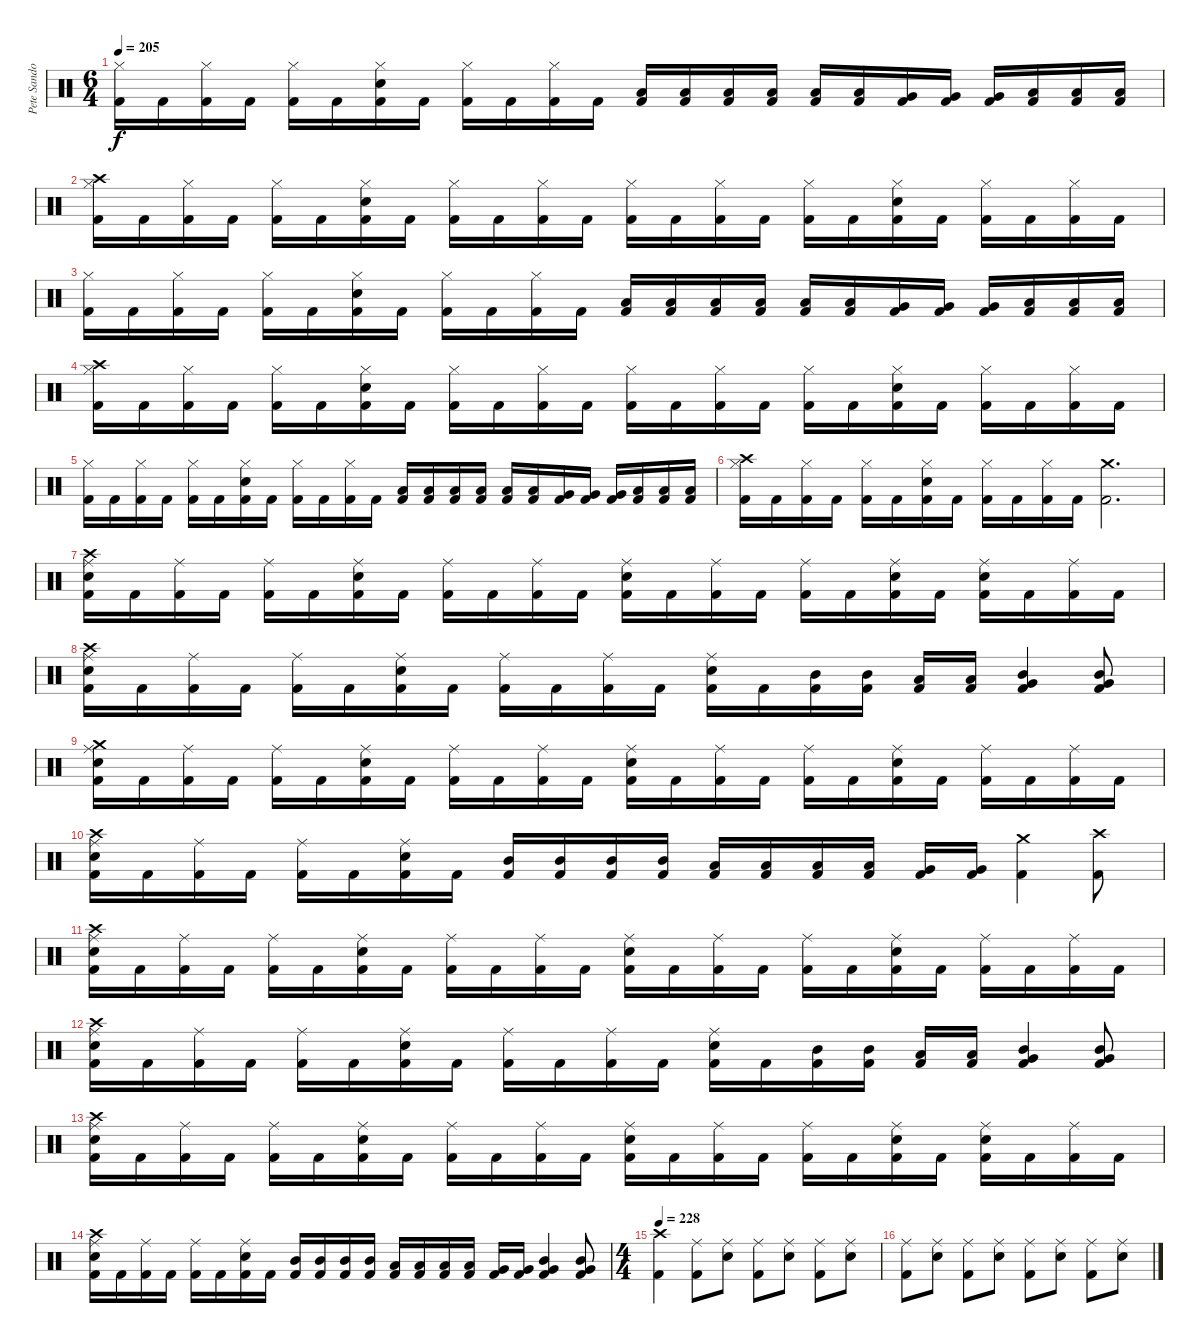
\track ("Pete Sandoval" "Pete Sando") {instrument percussion}
\staff {score}
\articulation defaults
\ts (6 4)
\tempo 205
\clef neutral
\ks c
("Hi-Hat (closed)" "Kick (hit) 2").16{dy f} "Kick (hit) 2".16 ("Hi-Hat (closed)" "Kick (hit) 2").16 "Kick (hit) 2".16 ("Hi-Hat (closed)" "Kick (hit) 2").16 "Kick (hit) 2".16 ("Electric Snare (hit)" "Hi-Hat (closed)" "Kick (hit) 2").16 "Kick (hit) 2".16 ("Hi-Hat (closed)" "Kick (hit) 2").16 "Kick (hit) 2".16 ("Hi-Hat (closed)" "Kick (hit) 2").16 "Kick (hit) 2".16 ("Low Tom (hit)" "Kick (hit) 2").16 ("Low Tom (hit)" "Kick (hit) 2").16 ("Low Tom (hit)" "Kick (hit) 2").16 ("Low Tom (hit)" "Kick (hit) 2").16 ("Low Tom (hit)" "Kick (hit) 2").16 ("Low Tom (hit)" "Kick (hit) 2").16 ("Very Low Tom (hit)" "Kick (hit) 2").16 ("Very Low Tom (hit)" "Kick (hit) 2").16 ("Very Low Tom (hit)" "Kick (hit) 2").16 ("Low Floor Tom (hit)" "Kick (hit) 2").16 ("Low Floor Tom (hit)" "Kick (hit) 2").16 ("Low Floor Tom (hit)" "Kick (hit) 2").16 |
("Crash high (hit)" "Hi-Hat (closed)" "Kick (hit) 2").16 "Kick (hit) 2".16 ("Hi-Hat (closed)" "Kick (hit) 2").16 "Kick (hit) 2".16 ("Hi-Hat (closed)" "Kick (hit) 2").16 "Kick (hit) 2".16 ("Electric Snare (hit)" "Hi-Hat (closed)" "Kick (hit) 2").16 "Kick (hit) 2".16 ("Hi-Hat (closed)" "Kick (hit) 2").16 "Kick (hit) 2".16 ("Hi-Hat (closed)" "Kick (hit) 2").16 "Kick (hit) 2".16 ("Hi-Hat (closed)" "Kick (hit) 2").16 "Kick (hit) 2".16 ("Hi-Hat (closed)" "Kick (hit) 2").16 "Kick (hit) 2".16 ("Hi-Hat (closed)" "Kick (hit) 2").16 "Kick (hit) 2".16 ("Electric Snare (hit)" "Hi-Hat (closed)" "Kick (hit) 2").16 "Kick (hit) 2".16 ("Hi-Hat (closed)" "Kick (hit) 2").16 "Kick (hit) 2".16 ("Hi-Hat (closed)" "Kick (hit) 2").16 "Kick (hit) 2".16 |
("Hi-Hat (closed)" "Kick (hit) 2").16 "Kick (hit) 2".16 ("Hi-Hat (closed)" "Kick (hit) 2").16 "Kick (hit) 2".16 ("Hi-Hat (closed)" "Kick (hit) 2").16 "Kick (hit) 2".16 ("Electric Snare (hit)" "Hi-Hat (closed)" "Kick (hit) 2").16 "Kick (hit) 2".16 ("Hi-Hat (closed)" "Kick (hit) 2").16 "Kick (hit) 2".16 ("Hi-Hat (closed)" "Kick (hit) 2").16 "Kick (hit) 2".16 ("Low Tom (hit)" "Kick (hit) 2").16 ("Low Tom (hit)" "Kick (hit) 2").16 ("Low Tom (hit)" "Kick (hit) 2").16 ("Low Tom (hit)" "Kick (hit) 2").16 ("Low Tom (hit)" "Kick (hit) 2").16 ("Low Tom (hit)" "Kick (hit) 2").16 ("Very Low Tom (hit)" "Kick (hit) 2").16 ("Very Low Tom (hit)" "Kick (hit) 2").16 ("Very Low Tom (hit)" "Kick (hit) 2").16 ("Low Floor Tom (hit)" "Kick (hit) 2").16 ("Low Floor Tom (hit)" "Kick (hit) 2").16 ("Low Floor Tom (hit)" "Kick (hit) 2").16 |
("Crash high (hit)" "Hi-Hat (closed)" "Kick (hit) 2").16 "Kick (hit) 2".16 ("Hi-Hat (closed)" "Kick (hit) 2").16 "Kick (hit) 2".16 ("Hi-Hat (closed)" "Kick (hit) 2").16 "Kick (hit) 2".16 ("Electric Snare (hit)" "Hi-Hat (closed)" "Kick (hit) 2").16 "Kick (hit) 2".16 ("Hi-Hat (closed)" "Kick (hit) 2").16 "Kick (hit) 2".16 ("Hi-Hat (closed)" "Kick (hit) 2").16 "Kick (hit) 2".16 ("Hi-Hat (closed)" "Kick (hit) 2").16 "Kick (hit) 2".16 ("Hi-Hat (closed)" "Kick (hit) 2").16 "Kick (hit) 2".16 ("Hi-Hat (closed)" "Kick (hit) 2").16 "Kick (hit) 2".16 ("Electric Snare (hit)" "Hi-Hat (closed)" "Kick (hit) 2").16 "Kick (hit) 2".16 ("Hi-Hat (closed)" "Kick (hit) 2").16 "Kick (hit) 2".16 ("Hi-Hat (closed)" "Kick (hit) 2").16 "Kick (hit) 2".16 |
("Hi-Hat (closed)" "Kick (hit) 2").16 "Kick (hit) 2".16 ("Hi-Hat (closed)" "Kick (hit) 2").16 "Kick (hit) 2".16 ("Hi-Hat (closed)" "Kick (hit) 2").16 "Kick (hit) 2".16 ("Electric Snare (hit)" "Hi-Hat (closed)" "Kick (hit) 2").16 "Kick (hit) 2".16 ("Hi-Hat (closed)" "Kick (hit) 2").16 "Kick (hit) 2".16 ("Hi-Hat (closed)" "Kick (hit) 2").16 "Kick (hit) 2".16 ("Low Tom (hit)" "Kick (hit) 2").16 ("Low Tom (hit)" "Kick (hit) 2").16 ("Low Tom (hit)" "Kick (hit) 2").16 ("Low Tom (hit)" "Kick (hit) 2").16 ("Low Tom (hit)" "Kick (hit) 2").16 ("Low Tom (hit)" "Kick (hit) 2").16 ("Very Low Tom (hit)" "Kick (hit) 2").16 ("Very Low Tom (hit)" "Kick (hit) 2").16 ("Very Low Tom (hit)" "Kick (hit) 2").16 ("Low Floor Tom (hit)" "Kick (hit) 2").16 ("Low Floor Tom (hit)" "Kick (hit) 2").16 ("Low Floor Tom (hit)" "Kick (hit) 2").16 |
("Crash high (hit)" "Hi-Hat (closed)" "Kick (hit) 2").16 "Kick (hit) 2".16 ("Hi-Hat (closed)" "Kick (hit) 2").16 "Kick (hit) 2".16 ("Hi-Hat (closed)" "Kick (hit) 2").16 "Kick (hit) 2".16 ("Electric Snare (hit)" "Hi-Hat (closed)" "Kick (hit) 2").16 "Kick (hit) 2".16 ("Hi-Hat (closed)" "Kick (hit) 2").16 "Kick (hit) 2".16 ("Hi-Hat (closed)" "Kick (hit) 2").16 "Kick (hit) 2".16 ("Crash medium (hit)" "Kick (hit) 2").2{d} |
("Crash high (hit)" "Electric Snare (hit)" "Ride (middle)" "Kick (hit) 2").16 "Kick (hit) 2".16 ("Ride (middle)" "Kick (hit) 2").16 "Kick (hit) 2".16 ("Ride (middle)" "Kick (hit) 2").16 "Kick (hit) 2".16 ("Electric Snare (hit)" "Ride (middle)" "Kick (hit) 2").16 "Kick (hit) 2".16 ("Ride (middle)" "Kick (hit) 2").16 "Kick (hit) 2".16 ("Ride (middle)" "Kick (hit) 2").16 "Kick (hit) 2".16 ("Electric Snare (hit)" "Ride (middle)" "Kick (hit) 2").16 "Kick (hit) 2".16 ("Ride (middle)" "Kick (hit) 2").16 "Kick (hit) 2".16 ("Ride (middle)" "Kick (hit) 2").16 "Kick (hit) 2".16 ("Electric Snare (hit)" "Ride (middle)" "Kick (hit) 2").16 "Kick (hit) 2".16 ("Electric Snare (hit)" "Ride (middle)" "Kick (hit) 2").16 "Kick (hit) 2".16 ("Ride (middle)" "Kick (hit) 2").16 "Kick (hit) 2".16 |
("Crash high (hit)" "Electric Snare (hit)" "Ride (middle)" "Kick (hit) 2").16 "Kick (hit) 2".16 ("Ride (middle)" "Kick (hit) 2").16 "Kick (hit) 2".16 ("Ride (middle)" "Kick (hit) 2").16 "Kick (hit) 2".16 ("Electric Snare (hit)" "Ride (middle)" "Kick (hit) 2").16 "Kick (hit) 2".16 ("Ride (middle)" "Kick (hit) 2").16 "Kick (hit) 2".16 ("Ride (middle)" "Kick (hit) 2").16 "Kick (hit) 2".16 ("Electric Snare (hit)" "Ride (middle)" "Kick (hit) 2").16 "Kick (hit) 2".16 ("Mid Tom (hit)" "Kick (hit) 2").16 ("Mid Tom (hit)" "Kick (hit) 2").16 ("Low Tom (hit)" "Kick (hit) 2").16 ("Low Tom (hit)" "Kick (hit) 2").16 ("Mid Tom (hit)" "Very Low Tom (hit)" "Kick (hit) 2").4 ("Mid Tom (hit)" "Very Low Tom (hit)" "Kick (hit) 2").8 |
("Crash medium (hit)" "Electric Snare (hit)" "Ride (middle)" "Kick (hit) 2").16 "Kick (hit) 2".16 ("Ride (middle)" "Kick (hit) 2").16 "Kick (hit) 2".16 ("Ride (middle)" "Kick (hit) 2").16 "Kick (hit) 2".16 ("Electric Snare (hit)" "Ride (middle)" "Kick (hit) 2").16 "Kick (hit) 2".16 ("Ride (middle)" "Kick (hit) 2").16 "Kick (hit) 2".16 ("Ride (middle)" "Kick (hit) 2").16 "Kick (hit) 2".16 ("Electric Snare (hit)" "Ride (middle)" "Kick (hit) 2").16 "Kick (hit) 2".16 ("Ride (middle)" "Kick (hit) 2").16 "Kick (hit) 2".16 ("Ride (middle)" "Kick (hit) 2").16 "Kick (hit) 2".16 ("Electric Snare (hit)" "Ride (middle)" "Kick (hit) 2").16 "Kick (hit) 2".16 ("Ride (middle)" "Kick (hit) 2").16 "Kick (hit) 2".16 ("Ride (middle)" "Kick (hit) 2").16 "Kick (hit) 2".16 |
("Crash high (hit)" "Electric Snare (hit)" "Ride (middle)" "Kick (hit) 2").16 "Kick (hit) 2".16 ("Ride (middle)" "Kick (hit) 2").16 "Kick (hit) 2".16 ("Ride (middle)" "Kick (hit) 2").16 "Kick (hit) 2".16 ("Electric Snare (hit)" "Ride (middle)" "Kick (hit) 2").16 "Kick (hit) 2".16 ("Mid Tom (hit)" "Kick (hit) 2").16 ("Mid Tom (hit)" "Kick (hit) 2").16 ("Mid Tom (hit)" "Kick (hit) 2").16 ("Mid Tom (hit)" "Kick (hit) 2").16 ("Low Tom (hit)" "Kick (hit) 2").16 ("Low Tom (hit)" "Kick (hit) 2").16 ("Low Tom (hit)" "Kick (hit) 2").16 ("Low Tom (hit)" "Kick (hit) 2").16 ("Very Low Tom (hit)" "Kick (hit) 2").16 ("Very Low Tom (hit)" "Kick (hit) 2").16 ("Crash medium (hit)" "Kick (hit) 2").4 ("Crash high (hit)" "Kick (hit) 2").8 |
("Crash high (hit)" "Electric Snare (hit)" "Ride (middle)" "Kick (hit) 2").16 "Kick (hit) 2".16 ("Ride (middle)" "Kick (hit) 2").16 "Kick (hit) 2".16 ("Ride (middle)" "Kick (hit) 2").16 "Kick (hit) 2".16 ("Electric Snare (hit)" "Ride (middle)" "Kick (hit) 2").16 "Kick (hit) 2".16 ("Ride (middle)" "Kick (hit) 2").16 "Kick (hit) 2".16 ("Ride (middle)" "Kick (hit) 2").16 "Kick (hit) 2".16 ("Electric Snare (hit)" "Ride (middle)" "Kick (hit) 2").16 "Kick (hit) 2".16 ("Ride (middle)" "Kick (hit) 2").16 "Kick (hit) 2".16 ("Ride (middle)" "Kick (hit) 2").16 "Kick (hit) 2".16 ("Electric Snare (hit)" "Ride (middle)" "Kick (hit) 2").16 "Kick (hit) 2".16 ("Ride (middle)" "Kick (hit) 2").16 "Kick (hit) 2".16 ("Ride (middle)" "Kick (hit) 2").16 "Kick (hit) 2".16 |
("Crash high (hit)" "Electric Snare (hit)" "Ride (middle)" "Kick (hit) 2").16 "Kick (hit) 2".16 ("Ride (middle)" "Kick (hit) 2").16 "Kick (hit) 2".16 ("Ride (middle)" "Kick (hit) 2").16 "Kick (hit) 2".16 ("Electric Snare (hit)" "Ride (middle)" "Kick (hit) 2").16 "Kick (hit) 2".16 ("Ride (middle)" "Kick (hit) 2").16 "Kick (hit) 2".16 ("Ride (middle)" "Kick (hit) 2").16 "Kick (hit) 2".16 ("Electric Snare (hit)" "Ride (middle)" "Kick (hit) 2").16 "Kick (hit) 2".16 ("Mid Tom (hit)" "Kick (hit) 2").16 ("Mid Tom (hit)" "Kick (hit) 2").16 ("Low Tom (hit)" "Kick (hit) 2").16 ("Low Tom (hit)" "Kick (hit) 2").16 ("Mid Tom (hit)" "Very Low Tom (hit)" "Kick (hit) 2").4 ("Mid Tom (hit)" "Very Low Tom (hit)" "Kick (hit) 2").8 |
("Crash high (hit)" "Electric Snare (hit)" "Ride (middle)" "Kick (hit) 2").16 "Kick (hit) 2".16 ("Ride (middle)" "Kick (hit) 2").16 "Kick (hit) 2".16 ("Ride (middle)" "Kick (hit) 2").16 "Kick (hit) 2".16 ("Electric Snare (hit)" "Ride (middle)" "Kick (hit) 2").16 "Kick (hit) 2".16 ("Ride (middle)" "Kick (hit) 2").16 "Kick (hit) 2".16 ("Ride (middle)" "Kick (hit) 2").16 "Kick (hit) 2".16 ("Electric Snare (hit)" "Ride (middle)" "Kick (hit) 2").16 "Kick (hit) 2".16 ("Ride (middle)" "Kick (hit) 2").16 "Kick (hit) 2".16 ("Ride (middle)" "Kick (hit) 2").16 "Kick (hit) 2".16 ("Electric Snare (hit)" "Ride (middle)" "Kick (hit) 2").16 "Kick (hit) 2".16 ("Electric Snare (hit)" "Ride (middle)" "Kick (hit) 2").16 "Kick (hit) 2".16 ("Ride (middle)" "Kick (hit) 2").16 "Kick (hit) 2".16 |
("Crash high (hit)" "Electric Snare (hit)" "Ride (middle)" "Kick (hit) 2").16 "Kick (hit) 2".16 ("Ride (middle)" "Kick (hit) 2").16 "Kick (hit) 2".16 ("Ride (middle)" "Kick (hit) 2").16 "Kick (hit) 2".16 ("Electric Snare (hit)" "Ride (middle)" "Kick (hit) 2").16 "Kick (hit) 2".16 ("Mid Tom (hit)" "Kick (hit) 2").16 ("Mid Tom (hit)" "Kick (hit) 2").16 ("Mid Tom (hit)" "Kick (hit) 2").16 ("Mid Tom (hit)" "Kick (hit) 2").16 ("Low Tom (hit)" "Kick (hit) 2").16 ("Low Tom (hit)" "Kick (hit) 2").16 ("Low Tom (hit)" "Kick (hit) 2").16 ("Low Tom (hit)" "Kick (hit) 2").16 ("Very Low Tom (hit)" "Kick (hit) 2").16 ("Very Low Tom (hit)" "Kick (hit) 2").16 ("Mid Tom (hit)" "Very Low Tom (hit)" "Kick (hit) 2").4 ("Mid Tom (hit)" "Very Low Tom (hit)" "Kick (hit) 2").8 |
\ts (4 4)
\tempo 228
("Crash high (hit)" "Kick (hit) 2").4 ("Kick (hit) 2" "Ride (middle)").8 ("Electric Snare (hit)" "Ride (middle)").8 ("Kick (hit) 2" "Ride (middle)").8 ("Electric Snare (hit)" "Ride (middle)").8 ("Kick (hit) 2" "Ride (middle)").8 ("Electric Snare (hit)" "Ride (middle)").8 |
("Kick (hit) 2" "Ride (middle)").8 ("Electric Snare (hit)" "Ride (middle)").8 ("Kick (hit) 2" "Ride (middle)").8 ("Electric Snare (hit)" "Ride (middle)").8 ("Kick (hit) 2" "Ride (middle)").8 ("Electric Snare (hit)" "Ride (middle)").8 ("Kick (hit) 2" "Ride (middle)").8 ("Electric Snare (hit)" "Ride (middle)").8
